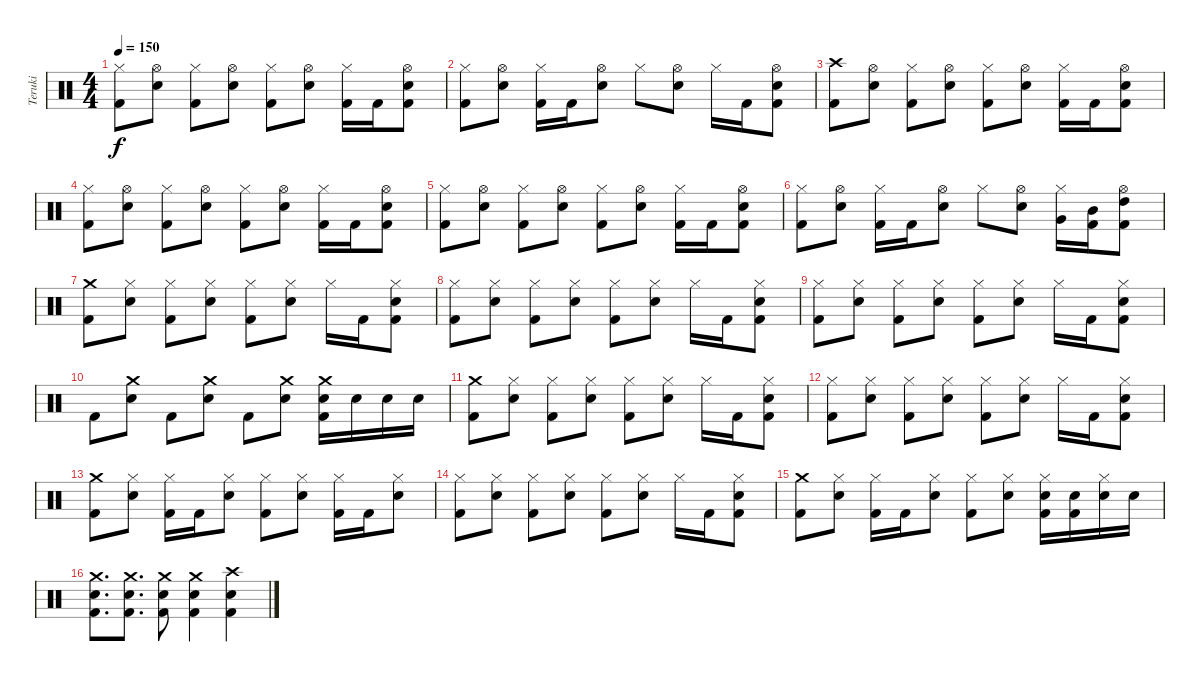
\track ("Teruki" "Teruki") {instrument percussion}
\staff {score}
\articulation defaults
\ts (4 4)
\tempo 150
\clef neutral
\ks c
("Hi-Hat (closed)" "Kick (hit) 2").8{dy f} ("Hi-Hat (open)" "Electric Snare (hit)").8 ("Hi-Hat (closed)" "Kick (hit) 2").8 ("Hi-Hat (open)" "Electric Snare (hit)").8 ("Hi-Hat (closed)" "Kick (hit) 2").8 ("Hi-Hat (open)" "Electric Snare (hit)").8 ("Hi-Hat (closed)" "Kick (hit) 2").16 "Kick (hit) 2".16 ("Hi-Hat (open)" "Electric Snare (hit)" "Kick (hit) 2").8 |
("Hi-Hat (closed)" "Kick (hit) 2").8 ("Hi-Hat (open)" "Electric Snare (hit)").8 ("Hi-Hat (closed)" "Kick (hit) 2").16 "Kick (hit) 2".16 ("Hi-Hat (open)" "Electric Snare (hit)").8 "Hi-Hat (closed)".8 ("Hi-Hat (open)" "Electric Snare (hit)").8 "Hi-Hat (closed)".16 "Kick (hit) 2".16 ("Hi-Hat (open)" "Electric Snare (hit)" "Kick (hit) 2").8 |
("Crash high (hit)" "Kick (hit) 2").8 ("Hi-Hat (open)" "Electric Snare (hit)").8 ("Hi-Hat (closed)" "Kick (hit) 2").8 ("Hi-Hat (open)" "Electric Snare (hit)").8 ("Hi-Hat (closed)" "Kick (hit) 2").8 ("Hi-Hat (open)" "Electric Snare (hit)").8 ("Hi-Hat (closed)" "Kick (hit) 2").16 "Kick (hit) 2".16 ("Hi-Hat (open)" "Electric Snare (hit)" "Kick (hit) 2").8 |
("Hi-Hat (closed)" "Kick (hit) 2").8 ("Hi-Hat (open)" "Electric Snare (hit)").8 ("Hi-Hat (closed)" "Kick (hit) 2").8 ("Hi-Hat (open)" "Electric Snare (hit)").8 ("Hi-Hat (closed)" "Kick (hit) 2").8 ("Hi-Hat (open)" "Electric Snare (hit)").8 ("Hi-Hat (closed)" "Kick (hit) 2").16 "Kick (hit) 2".16 ("Hi-Hat (open)" "Electric Snare (hit)" "Kick (hit) 2").8 |
("Hi-Hat (closed)" "Kick (hit) 2").8 ("Hi-Hat (open)" "Electric Snare (hit)").8 ("Hi-Hat (closed)" "Kick (hit) 2").8 ("Hi-Hat (open)" "Electric Snare (hit)").8 ("Hi-Hat (closed)" "Kick (hit) 2").8 ("Hi-Hat (open)" "Electric Snare (hit)").8 ("Hi-Hat (closed)" "Kick (hit) 2").16 "Kick (hit) 2".16 ("Hi-Hat (open)" "Electric Snare (hit)" "Kick (hit) 2").8 |
("Hi-Hat (closed)" "Kick (hit) 2").8 ("Hi-Hat (open)" "Electric Snare (hit)").8 ("Hi-Hat (closed)" "Kick (hit) 2").16 "Kick (hit) 2".16 ("Hi-Hat (open)" "Electric Snare (hit)").8 "Hi-Hat (closed)".8 ("Hi-Hat (open)" "Electric Snare (hit)").8 ("Hi-Hat (closed)" "Very Low Tom (hit)").16 ("Mid Tom (hit)" "Kick (hit) 2").16 ("Hi-Hat (open)" "High Tom (hit)" "Kick (hit) 2").8 |
("Crash medium (hit)" "Kick (hit) 2").8 ("Hi-Hat (closed)" "Electric Snare (hit)").8 ("Hi-Hat (closed)" "Kick (hit) 2").8 ("Hi-Hat (closed)" "Electric Snare (hit)").8 ("Hi-Hat (closed)" "Kick (hit) 2").8 ("Hi-Hat (closed)" "Electric Snare (hit)").8 "Hi-Hat (closed)".16 "Kick (hit) 2".16 ("Hi-Hat (closed)" "Electric Snare (hit)" "Kick (hit) 2").8 |
("Hi-Hat (closed)" "Kick (hit) 2").8 ("Hi-Hat (closed)" "Electric Snare (hit)").8 ("Hi-Hat (closed)" "Kick (hit) 2").8 ("Hi-Hat (closed)" "Electric Snare (hit)").8 ("Hi-Hat (closed)" "Kick (hit) 2").8 ("Hi-Hat (closed)" "Electric Snare (hit)").8 "Hi-Hat (closed)".16 "Kick (hit) 2".16 ("Hi-Hat (closed)" "Electric Snare (hit)" "Kick (hit) 2").8 |
("Hi-Hat (closed)" "Kick (hit) 2").8 ("Hi-Hat (closed)" "Electric Snare (hit)").8 ("Hi-Hat (closed)" "Kick (hit) 2").8 ("Hi-Hat (closed)" "Electric Snare (hit)").8 ("Hi-Hat (closed)" "Kick (hit) 2").8 ("Hi-Hat (closed)" "Electric Snare (hit)").8 "Hi-Hat (closed)".16 "Kick (hit) 2".16 ("Hi-Hat (closed)" "Electric Snare (hit)" "Kick (hit) 2").8 |
"Kick (hit) 2".8 ("Crash medium (hit)" "Electric Snare (hit)").8 "Kick (hit) 2".8 ("Crash medium (hit)" "Electric Snare (hit)").8 "Kick (hit) 2".8 ("Crash medium (hit)" "Electric Snare (hit)").8 ("Crash medium (hit)" "Electric Snare (hit)" "Kick (hit) 2").16 "Electric Snare (hit)".16 "Electric Snare (hit)".16 "Electric Snare (hit)".16 |
("Crash medium (hit)" "Kick (hit) 2").8 ("Hi-Hat (closed)" "Electric Snare (hit)").8 ("Hi-Hat (closed)" "Kick (hit) 2").8 ("Hi-Hat (closed)" "Electric Snare (hit)").8 ("Hi-Hat (closed)" "Kick (hit) 2").8 ("Hi-Hat (closed)" "Electric Snare (hit)").8 "Hi-Hat (closed)".16 "Kick (hit) 2".16 ("Hi-Hat (closed)" "Electric Snare (hit)" "Kick (hit) 2").8 |
("Hi-Hat (closed)" "Kick (hit) 2").8 ("Hi-Hat (closed)" "Electric Snare (hit)").8 ("Hi-Hat (closed)" "Kick (hit) 2").8 ("Hi-Hat (closed)" "Electric Snare (hit)").8 ("Hi-Hat (closed)" "Kick (hit) 2").8 ("Hi-Hat (closed)" "Electric Snare (hit)").8 "Hi-Hat (closed)".16 "Kick (hit) 2".16 ("Hi-Hat (closed)" "Electric Snare (hit)" "Kick (hit) 2").8 |
("Crash medium (hit)" "Kick (hit) 2").8 ("Hi-Hat (closed)" "Electric Snare (hit)").8 ("Hi-Hat (closed)" "Kick (hit) 2").16 "Kick (hit) 2".16 ("Hi-Hat (closed)" "Electric Snare (hit)").8 ("Hi-Hat (closed)" "Kick (hit) 2").8 ("Hi-Hat (closed)" "Electric Snare (hit)").8 ("Hi-Hat (closed)" "Kick (hit) 2").16 "Kick (hit) 2".16 ("Hi-Hat (closed)" "Electric Snare (hit)").8 |
("Hi-Hat (closed)" "Kick (hit) 2").8 ("Hi-Hat (closed)" "Electric Snare (hit)").8 ("Hi-Hat (closed)" "Kick (hit) 2").8 ("Hi-Hat (closed)" "Electric Snare (hit)").8 ("Hi-Hat (closed)" "Kick (hit) 2").8 ("Hi-Hat (closed)" "Electric Snare (hit)").8 "Hi-Hat (closed)".16 "Kick (hit) 2".16 ("Hi-Hat (closed)" "Electric Snare (hit)" "Kick (hit) 2").8 |
("Crash medium (hit)" "Kick (hit) 2").8 ("Hi-Hat (closed)" "Electric Snare (hit)").8 ("Hi-Hat (closed)" "Kick (hit) 2").16 "Kick (hit) 2".16 ("Hi-Hat (closed)" "Electric Snare (hit)").8 ("Hi-Hat (closed)" "Kick (hit) 2").8 ("Hi-Hat (closed)" "Electric Snare (hit)").8 ("Hi-Hat (closed)" "Electric Snare (hit)" "Kick (hit) 2").16 ("Electric Snare (hit)" "Kick (hit) 2").16 ("Hi-Hat (closed)" "Electric Snare (hit)").16 "Electric Snare (hit)".16 |
("Crash medium (hit)" "Electric Snare (hit)" "Kick (hit) 2").8{d} ("Crash medium (hit)" "Electric Snare (hit)" "Kick (hit) 2").8{d} ("Crash medium (hit)" "Electric Snare (hit)" "Kick (hit) 2").8 ("Crash medium (hit)" "Electric Snare (hit)" "Kick (hit) 2").4 ("Crash high (hit)" "Electric Snare (hit)" "Kick (hit) 2").4
